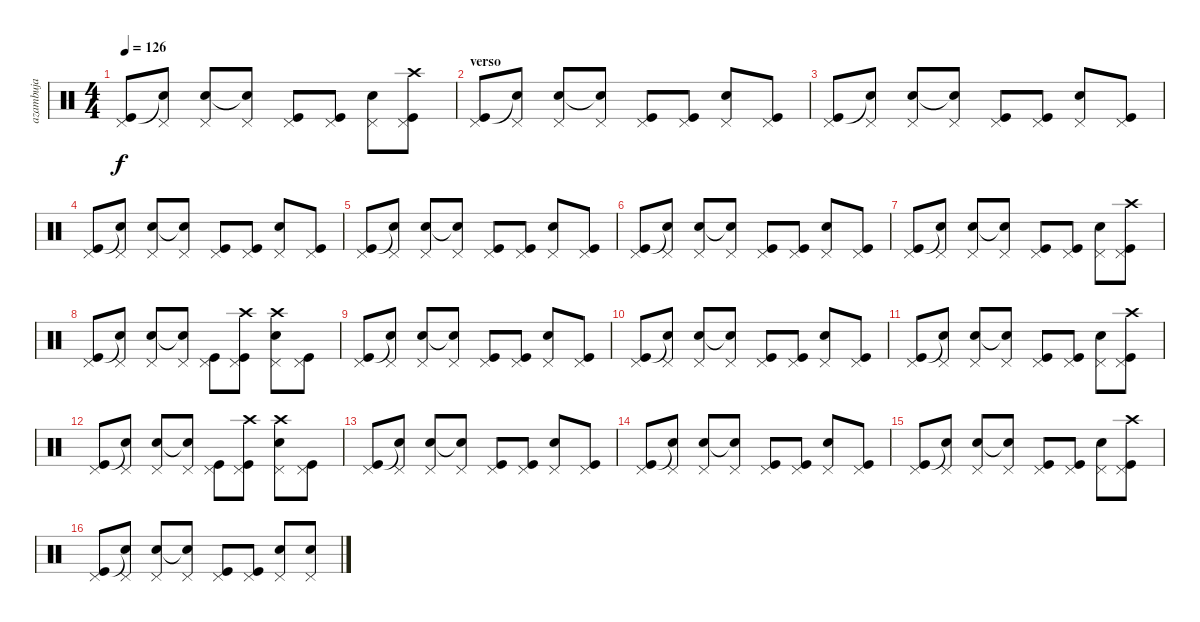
\track ("azambuja" "azambuja") {instrument percussion}
\staff {score}
\articulation defaults
\ts (4 4)
\tempo 126
\clef neutral
\ks c
("Pedal Hi-Hat (hit)" "Kick (hit)").8{dy f} ("Pedal Hi-Hat (hit)" "Snare (hit)"{t}).8 ("Pedal Hi-Hat (hit)" "Snare (hit) 2").8 ("Pedal Hi-Hat (hit)" "Snare (hit) 2"{t}).8 ("Pedal Hi-Hat (hit)" "Kick (hit)").8 ("Pedal Hi-Hat (hit)" "Kick (hit)").8 ("Pedal Hi-Hat (hit)" "Snare (hit) 2").8 ("Crash high (hit)" "Pedal Hi-Hat (hit)" "Kick (hit)").8 |
\section ("" "verso")
("Pedal Hi-Hat (hit)" "Kick (hit)").8 ("Pedal Hi-Hat (hit)" "Snare (hit)"{t}).8 ("Pedal Hi-Hat (hit)" "Snare (hit) 2").8 ("Pedal Hi-Hat (hit)" "Snare (hit) 2"{t}).8 ("Pedal Hi-Hat (hit)" "Kick (hit)").8 ("Pedal Hi-Hat (hit)" "Kick (hit)").8 ("Pedal Hi-Hat (hit)" "Snare (hit) 2").8 ("Pedal Hi-Hat (hit)" "Kick (hit)").8 |
("Pedal Hi-Hat (hit)" "Kick (hit)").8 ("Pedal Hi-Hat (hit)" "Snare (hit)"{t}).8 ("Pedal Hi-Hat (hit)" "Snare (hit) 2").8 ("Pedal Hi-Hat (hit)" "Snare (hit) 2"{t}).8 ("Pedal Hi-Hat (hit)" "Kick (hit)").8 ("Pedal Hi-Hat (hit)" "Kick (hit)").8 ("Pedal Hi-Hat (hit)" "Snare (hit) 2").8 ("Pedal Hi-Hat (hit)" "Kick (hit)").8 |
("Pedal Hi-Hat (hit)" "Kick (hit)").8 ("Pedal Hi-Hat (hit)" "Snare (hit)"{t}).8 ("Pedal Hi-Hat (hit)" "Snare (hit) 2").8 ("Pedal Hi-Hat (hit)" "Snare (hit) 2"{t}).8 ("Pedal Hi-Hat (hit)" "Kick (hit)").8 ("Pedal Hi-Hat (hit)" "Kick (hit)").8 ("Pedal Hi-Hat (hit)" "Snare (hit) 2").8 ("Pedal Hi-Hat (hit)" "Kick (hit)").8 |
("Pedal Hi-Hat (hit)" "Kick (hit)").8 ("Pedal Hi-Hat (hit)" "Snare (hit)"{t}).8 ("Pedal Hi-Hat (hit)" "Snare (hit) 2").8 ("Pedal Hi-Hat (hit)" "Snare (hit) 2"{t}).8 ("Pedal Hi-Hat (hit)" "Kick (hit)").8 ("Pedal Hi-Hat (hit)" "Kick (hit)").8 ("Pedal Hi-Hat (hit)" "Snare (hit) 2").8 ("Pedal Hi-Hat (hit)" "Kick (hit)").8 |
("Pedal Hi-Hat (hit)" "Kick (hit)").8 ("Pedal Hi-Hat (hit)" "Snare (hit)"{t}).8 ("Pedal Hi-Hat (hit)" "Snare (hit) 2").8 ("Pedal Hi-Hat (hit)" "Snare (hit) 2"{t}).8 ("Pedal Hi-Hat (hit)" "Kick (hit)").8 ("Pedal Hi-Hat (hit)" "Kick (hit)").8 ("Pedal Hi-Hat (hit)" "Snare (hit) 2").8 ("Pedal Hi-Hat (hit)" "Kick (hit)").8 |
("Pedal Hi-Hat (hit)" "Kick (hit)").8 ("Pedal Hi-Hat (hit)" "Snare (hit)"{t}).8 ("Pedal Hi-Hat (hit)" "Snare (hit) 2").8 ("Pedal Hi-Hat (hit)" "Snare (hit) 2"{t}).8 ("Pedal Hi-Hat (hit)" "Kick (hit)").8 ("Pedal Hi-Hat (hit)" "Kick (hit)").8 ("Pedal Hi-Hat (hit)" "Snare (hit) 2").8 ("Crash high (hit)" "Pedal Hi-Hat (hit)" "Kick (hit)").8 |
("Pedal Hi-Hat (hit)" "Kick (hit)").8 ("Pedal Hi-Hat (hit)" "Snare (hit)"{t}).8 ("Pedal Hi-Hat (hit)" "Snare (hit) 2").8 ("Pedal Hi-Hat (hit)" "Snare (hit) 2"{t}).8 ("Pedal Hi-Hat (hit)" "Kick (hit)").8 ("Crash high (hit)" "Pedal Hi-Hat (hit)" "Kick (hit)").8 ("Crash high (hit)" "Pedal Hi-Hat (hit)" "Snare (hit) 2").8 ("Pedal Hi-Hat (hit)" "Kick (hit)").8 |
\section ("" "")
("Pedal Hi-Hat (hit)" "Kick (hit)").8 ("Pedal Hi-Hat (hit)" "Snare (hit)"{t}).8 ("Pedal Hi-Hat (hit)" "Snare (hit) 2").8 ("Pedal Hi-Hat (hit)" "Snare (hit) 2"{t}).8 ("Pedal Hi-Hat (hit)" "Kick (hit)").8 ("Pedal Hi-Hat (hit)" "Kick (hit)").8 ("Pedal Hi-Hat (hit)" "Snare (hit) 2").8 ("Pedal Hi-Hat (hit)" "Kick (hit)").8 |
("Pedal Hi-Hat (hit)" "Kick (hit)").8 ("Pedal Hi-Hat (hit)" "Snare (hit)"{t}).8 ("Pedal Hi-Hat (hit)" "Snare (hit) 2").8 ("Pedal Hi-Hat (hit)" "Snare (hit) 2"{t}).8 ("Pedal Hi-Hat (hit)" "Kick (hit)").8 ("Pedal Hi-Hat (hit)" "Kick (hit)").8 ("Pedal Hi-Hat (hit)" "Snare (hit) 2").8 ("Pedal Hi-Hat (hit)" "Kick (hit)").8 |
("Pedal Hi-Hat (hit)" "Kick (hit)").8 ("Pedal Hi-Hat (hit)" "Snare (hit)"{t}).8 ("Pedal Hi-Hat (hit)" "Snare (hit) 2").8 ("Pedal Hi-Hat (hit)" "Snare (hit) 2"{t}).8 ("Pedal Hi-Hat (hit)" "Kick (hit)").8 ("Pedal Hi-Hat (hit)" "Kick (hit)").8 ("Pedal Hi-Hat (hit)" "Snare (hit) 2").8 ("Crash high (hit)" "Pedal Hi-Hat (hit)" "Kick (hit)").8 |
("Pedal Hi-Hat (hit)" "Kick (hit)").8 ("Pedal Hi-Hat (hit)" "Snare (hit)"{t}).8 ("Pedal Hi-Hat (hit)" "Snare (hit) 2").8 ("Pedal Hi-Hat (hit)" "Snare (hit) 2"{t}).8 ("Pedal Hi-Hat (hit)" "Kick (hit)").8 ("Crash high (hit)" "Pedal Hi-Hat (hit)" "Kick (hit)").8 ("Crash high (hit)" "Pedal Hi-Hat (hit)" "Snare (hit) 2").8 ("Pedal Hi-Hat (hit)" "Kick (hit)").8 |
("Pedal Hi-Hat (hit)" "Kick (hit)").8 ("Pedal Hi-Hat (hit)" "Snare (hit)"{t}).8 ("Pedal Hi-Hat (hit)" "Snare (hit) 2").8 ("Pedal Hi-Hat (hit)" "Snare (hit) 2"{t}).8 ("Pedal Hi-Hat (hit)" "Kick (hit)").8 ("Pedal Hi-Hat (hit)" "Kick (hit)").8 ("Pedal Hi-Hat (hit)" "Snare (hit) 2").8 ("Pedal Hi-Hat (hit)" "Kick (hit)").8 |
("Pedal Hi-Hat (hit)" "Kick (hit)").8 ("Pedal Hi-Hat (hit)" "Snare (hit)"{t}).8 ("Pedal Hi-Hat (hit)" "Snare (hit) 2").8 ("Pedal Hi-Hat (hit)" "Snare (hit) 2"{t}).8 ("Pedal Hi-Hat (hit)" "Kick (hit)").8 ("Pedal Hi-Hat (hit)" "Kick (hit)").8 ("Pedal Hi-Hat (hit)" "Snare (hit) 2").8 ("Pedal Hi-Hat (hit)" "Kick (hit)").8 |
("Pedal Hi-Hat (hit)" "Kick (hit)").8 ("Pedal Hi-Hat (hit)" "Snare (hit)"{t}).8 ("Pedal Hi-Hat (hit)" "Snare (hit) 2").8 ("Pedal Hi-Hat (hit)" "Snare (hit) 2"{t}).8 ("Pedal Hi-Hat (hit)" "Kick (hit)").8 ("Pedal Hi-Hat (hit)" "Kick (hit)").8 ("Pedal Hi-Hat (hit)" "Snare (hit) 2").8 ("Crash high (hit)" "Pedal Hi-Hat (hit)" "Kick (hit)").8 |
("Pedal Hi-Hat (hit)" "Kick (hit)").8 ("Pedal Hi-Hat (hit)" "Snare (hit)"{t}).8 ("Pedal Hi-Hat (hit)" "Snare (hit) 2").8 ("Pedal Hi-Hat (hit)" "Snare (hit) 2"{t}).8 ("Pedal Hi-Hat (hit)" "Kick (hit)").8 ("Pedal Hi-Hat (hit)" "Kick (hit)").8 ("Pedal Hi-Hat (hit)" "Snare (hit) 2").8 ("Pedal Hi-Hat (hit)" "Snare (hit) 2").8
